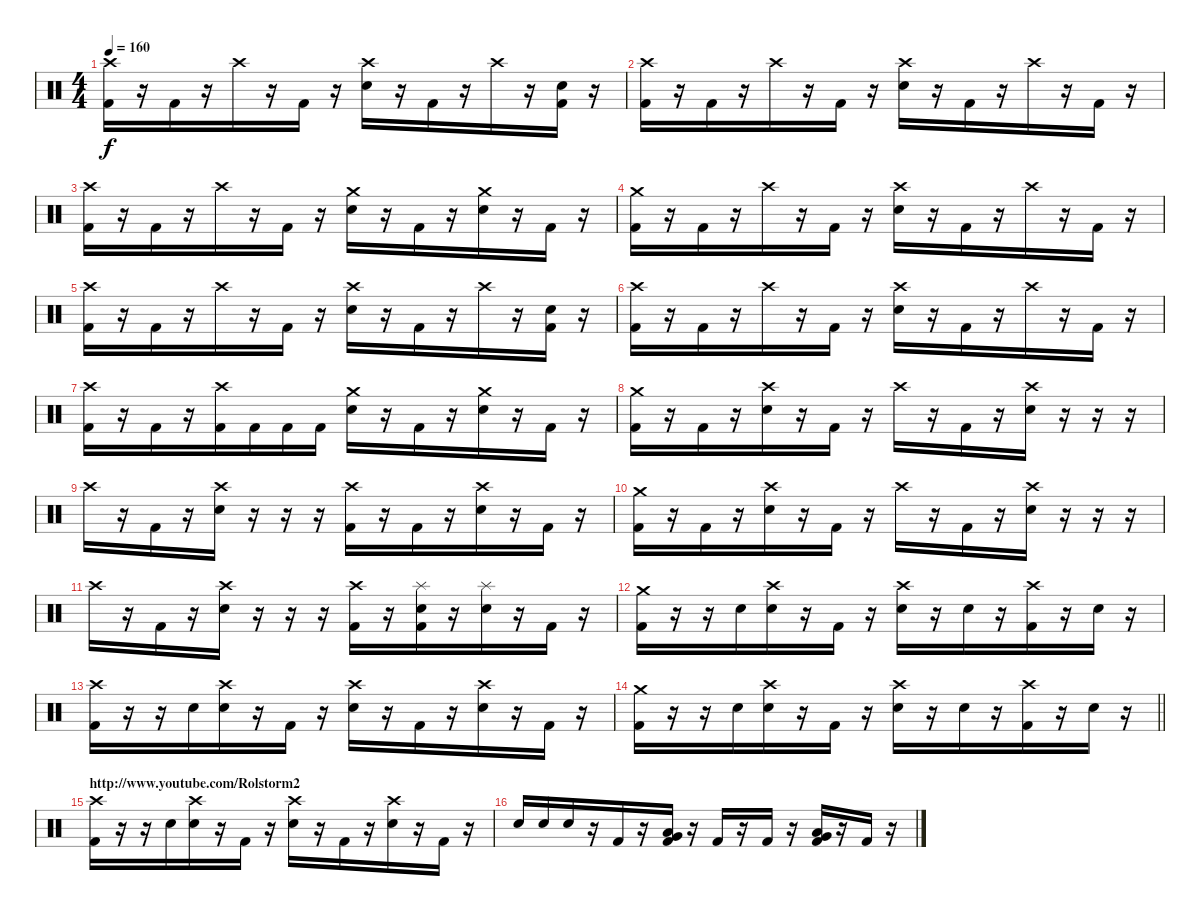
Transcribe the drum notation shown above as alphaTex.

\track "" {instrument percussion}
\staff {score}
\articulation defaults
\ts (4 4)
\tempo 160
\clef neutral
\ks c
("Crash high (hit)" "Kick (hit) 2").16{dy f} r.16 "Kick (hit) 2".16{beam merge} r.16{beam merge} "Crash high (hit)".16 r.16 "Kick (hit) 2".16 r.16 ("Crash high (hit)" "Electric Snare (hit)").16{beam merge} r.16 "Kick (hit) 2".16{beam merge} r.16{beam merge} "Crash high (hit)".16 r.16{beam merge} ("Electric Snare (hit)" "Kick (hit) 2").16 r.16 |
("Crash high (hit)" "Kick (hit) 2").16 r.16 "Kick (hit) 2".16{beam merge} r.16{beam merge} "Crash high (hit)".16 r.16 "Kick (hit) 2".16 r.16 ("Crash high (hit)" "Electric Snare (hit)").16{beam merge} r.16 "Kick (hit) 2".16{beam merge} r.16{beam merge} "Crash high (hit)".16 r.16{beam merge} "Kick (hit) 2".16 r.16 |
("Crash high (hit)" "Kick (hit) 2").16 r.16 "Kick (hit) 2".16{beam merge} r.16{beam merge} "Crash high (hit)".16 r.16 "Kick (hit) 2".16 r.16 ("Crash medium (hit)" "Electric Snare (hit)").16{beam merge} r.16 "Kick (hit) 2".16{beam merge} r.16{beam merge} ("Crash medium (hit)" "Electric Snare (hit)").16 r.16{beam merge} "Kick (hit) 2".16 r.16 |
("Crash medium (hit)" "Kick (hit) 2").16 r.16 "Kick (hit) 2".16{beam merge} r.16{beam merge} "Crash high (hit)".16 r.16 "Kick (hit) 2".16 r.16 ("Crash high (hit)" "Electric Snare (hit)").16{beam merge} r.16 "Kick (hit) 2".16{beam merge} r.16{beam merge} "Crash high (hit)".16 r.16{beam merge} "Kick (hit) 2".16 r.16 |
("Crash high (hit)" "Kick (hit) 2").16 r.16 "Kick (hit) 2".16{beam merge} r.16{beam merge} "Crash high (hit)".16 r.16 "Kick (hit) 2".16 r.16 ("Crash high (hit)" "Electric Snare (hit)").16{beam merge} r.16 "Kick (hit) 2".16{beam merge} r.16{beam merge} "Crash high (hit)".16 r.16{beam merge} ("Electric Snare (hit)" "Kick (hit) 2").16 r.16 |
("Crash high (hit)" "Kick (hit) 2").16 r.16 "Kick (hit) 2".16{beam merge} r.16{beam merge} "Crash high (hit)".16 r.16 "Kick (hit) 2".16 r.16 ("Crash high (hit)" "Electric Snare (hit)").16{beam merge} r.16 "Kick (hit) 2".16{beam merge} r.16{beam merge} "Crash high (hit)".16 r.16{beam merge} "Kick (hit) 2".16 r.16 |
("Crash high (hit)" "Kick (hit) 2").16 r.16 "Kick (hit) 2".16{beam merge} r.16{beam merge} ("Crash high (hit)" "Kick (hit) 2").16 "Kick (hit) 2".16 "Kick (hit) 2".16 "Kick (hit) 2".16 ("Crash medium (hit)" "Electric Snare (hit)").16{beam merge} r.16 "Kick (hit) 2".16{beam merge} r.16{beam merge} ("Crash medium (hit)" "Electric Snare (hit)").16 r.16 "Kick (hit) 2".16 r.16 |
("Crash medium (hit)" "Kick (hit) 2").16 r.16 "Kick (hit) 2".16{beam merge} r.16{beam merge} ("Crash high (hit)" "Electric Snare (hit)").16 r.16 "Kick (hit) 2".16 r.16 "Crash high (hit)".16{beam merge} r.16 "Kick (hit) 2".16{beam merge} r.16{beam merge} ("Crash high (hit)" "Electric Snare (hit)").16 r.16{beam merge} r.16 r.16 |
"Crash high (hit)".16 r.16 "Kick (hit) 2".16{beam merge} r.16{beam merge} ("Crash high (hit)" "Electric Snare (hit)").16 r.16 r.16 r.16 ("Crash high (hit)" "Kick (hit) 2").16{beam merge} r.16 "Kick (hit) 2".16{beam merge} r.16{beam merge} ("Crash high (hit)" "Electric Snare (hit)").16 r.16{beam merge} "Kick (hit) 2".16 r.16 |
("Crash medium (hit)" "Kick (hit) 2").16 r.16 "Kick (hit) 2".16{beam merge} r.16{beam merge} ("Crash high (hit)" "Electric Snare (hit)").16 r.16 "Kick (hit) 2".16 r.16 "Crash high (hit)".16{beam merge} r.16 "Kick (hit) 2".16{beam merge} r.16{beam merge} ("Crash high (hit)" "Electric Snare (hit)").16 r.16{beam merge} r.16 r.16 |
"Crash high (hit)".16 r.16 "Kick (hit) 2".16{beam merge} r.16{beam merge} ("Crash high (hit)" "Electric Snare (hit)").16 r.16 r.16 r.16 ("Crash high (hit)" "Kick (hit) 2").16{beam merge} r.16 ("Splash (hit)" "Electric Snare (hit)" "Kick (hit) 2").16{beam merge} r.16{beam merge} ("Splash (hit)" "Electric Snare (hit)").16 r.16{beam merge} "Kick (hit) 2".16 r.16 |
("Crash medium (hit)" "Kick (hit) 2").16 r.16 r.16{beam merge} "Electric Snare (hit)".16{beam merge} ("Crash high (hit)" "Electric Snare (hit)").16 r.16 "Kick (hit) 2".16 r.16 ("Crash high (hit)" "Electric Snare (hit)").16{beam merge} r.16 "Electric Snare (hit)".16{beam merge} r.16{beam merge} ("Crash high (hit)" "Kick (hit) 2").16 r.16{beam merge} "Electric Snare (hit)".16 r.16 |
("Crash high (hit)" "Kick (hit) 2").16 r.16 r.16{beam merge} "Electric Snare (hit)".16{beam merge} ("Crash high (hit)" "Electric Snare (hit)").16 r.16 "Kick (hit) 2".16 r.16 ("Crash high (hit)" "Electric Snare (hit)").16{beam merge} r.16 "Kick (hit) 2".16{beam merge} r.16{beam merge} ("Crash high (hit)" "Electric Snare (hit)").16 r.16{beam merge} "Kick (hit) 2".16 r.16 |
\barLineRight lightlight
("Crash medium (hit)" "Kick (hit) 2").16 r.16 r.16{beam merge} "Electric Snare (hit)".16{beam merge} ("Crash high (hit)" "Electric Snare (hit)").16 r.16 "Kick (hit) 2".16 r.16 ("Crash high (hit)" "Electric Snare (hit)").16{beam merge} r.16 "Electric Snare (hit)".16{beam merge} r.16{beam merge} ("Crash high (hit)" "Kick (hit) 2").16 r.16{beam merge} "Electric Snare (hit)".16 r.16 |
\section ("" "http://www.youtube.com/Rolstorm2")
("Crash high (hit)" "Kick (hit) 2").16 r.16 r.16{beam merge} "Electric Snare (hit)".16{beam merge} ("Crash high (hit)" "Electric Snare (hit)").16 r.16 "Kick (hit) 2".16 r.16 ("Crash high (hit)" "Electric Snare (hit)").16{beam merge} r.16 "Kick (hit) 2".16{beam merge} r.16{beam merge} ("Crash high (hit)" "Electric Snare (hit)").16 r.16{beam merge} "Kick (hit) 2".16 r.16 |
"Electric Snare (hit)".16 "Electric Snare (hit)".16 "Electric Snare (hit)".16{beam merge} r.16 "Kick (hit) 2".16 r.16 ("Very Low Tom (hit)" "Low Floor Tom (hit)" "Kick (hit) 2").16 r.16{beam merge} "Kick (hit) 2".16 r.16{beam merge} "Kick (hit) 2".16 r.16 ("Very Low Tom (hit)" "Low Floor Tom (hit)" "Kick (hit) 2").16 r.16 "Kick (hit) 2".16{beam merge} r.16
